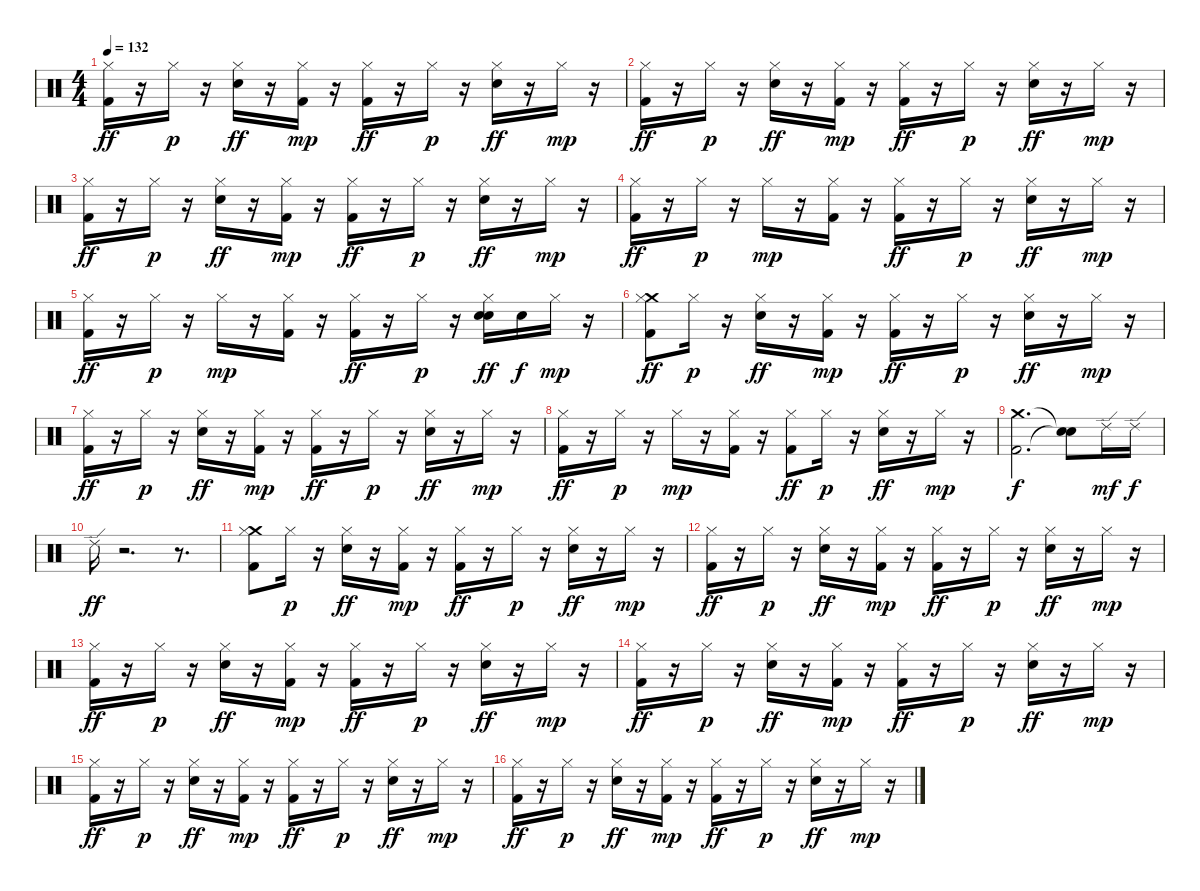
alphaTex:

\track "" {instrument percussion}
\staff {score}
\articulation defaults
\ts (4 4)
\tempo 132
\clef neutral
\ks c
("Hi-Hat (closed)" "Kick (hit) 2").16{dy ff} r.16 "Hi-Hat (closed)".16{dy p} r.16 ("Hi-Hat (closed)" "Snare (hit) 2").16{dy ff} r.16 ("Kick (hit) 2" "Hi-Hat (closed)").16{dy mp} r.16 ("Hi-Hat (closed)" "Kick (hit) 2").16{dy ff} r.16 "Hi-Hat (closed)".16{dy p} r.16 ("Hi-Hat (closed)" "Snare (hit) 2").16{dy ff} r.16 "Hi-Hat (closed)".16{dy mp} r.16 |
("Hi-Hat (closed)" "Kick (hit) 2").16{dy ff} r.16 "Hi-Hat (closed)".16{dy p} r.16 ("Hi-Hat (closed)" "Snare (hit) 2").16{dy ff} r.16 ("Kick (hit) 2" "Hi-Hat (closed)").16{dy mp} r.16 ("Hi-Hat (closed)" "Kick (hit) 2").16{dy ff} r.16 "Hi-Hat (closed)".16{dy p} r.16 ("Hi-Hat (closed)" "Snare (hit) 2").16{dy ff} r.16 "Hi-Hat (closed)".16{dy mp} r.16 |
("Hi-Hat (closed)" "Kick (hit) 2").16{dy ff} r.16 "Hi-Hat (closed)".16{dy p} r.16 ("Hi-Hat (closed)" "Snare (hit) 2").16{dy ff} r.16 ("Kick (hit) 2" "Hi-Hat (closed)").16{dy mp} r.16 ("Hi-Hat (closed)" "Kick (hit) 2").16{dy ff} r.16 "Hi-Hat (closed)".16{dy p} r.16 ("Hi-Hat (closed)" "Snare (hit) 2").16{dy ff} r.16 "Hi-Hat (closed)".16{dy mp} r.16 |
("Hi-Hat (closed)" "Kick (hit) 2").16{dy ff} r.16 "Hi-Hat (closed)".16{dy p} r.16 "Hi-Hat (closed)".16{dy mp} r.16 ("Kick (hit) 2" "Hi-Hat (closed)").16 r.16 ("Hi-Hat (closed)" "Kick (hit) 2").16{dy ff} r.16 "Hi-Hat (closed)".16{dy p} r.16 ("Hi-Hat (closed)" "Snare (hit) 2").16{dy ff} r.16 "Hi-Hat (closed)".16{dy mp} r.16 |
("Hi-Hat (closed)" "Kick (hit) 2").16{dy ff} r.16 "Hi-Hat (closed)".16{dy p} r.16 "Hi-Hat (closed)".16{dy mp} r.16 ("Kick (hit) 2" "Hi-Hat (closed)").16 r.16 ("Hi-Hat (closed)" "Kick (hit) 2").16{dy ff} r.16 "Hi-Hat (closed)".16{dy p} r.16 ("Snare (hit) 2" "Hi-Hat (closed)" "Snare (hit) 2").16{dy ff} "Snare (hit) 2".16{dy f} "Hi-Hat (closed)".16{dy mp} r.16 |
("Crash medium (hit)" "Hi-Hat (closed)" "Kick (hit) 2").8{dy ff} "Hi-Hat (closed)".16{dy p} r.16 ("Hi-Hat (closed)" "Snare (hit) 2").16{dy ff} r.16 ("Kick (hit) 2" "Hi-Hat (closed)").16{dy mp} r.16 ("Hi-Hat (closed)" "Kick (hit) 2").16{dy ff} r.16 "Hi-Hat (closed)".16{dy p} r.16 ("Hi-Hat (closed)" "Snare (hit) 2").16{dy ff} r.16 "Hi-Hat (closed)".16{dy mp} r.16 |
("Hi-Hat (closed)" "Kick (hit) 2").16{dy ff} r.16 "Hi-Hat (closed)".16{dy p} r.16 ("Hi-Hat (closed)" "Snare (hit) 2").16{dy ff} r.16 ("Kick (hit) 2" "Hi-Hat (closed)").16{dy mp} r.16 ("Hi-Hat (closed)" "Kick (hit) 2").16{dy ff} r.16 "Hi-Hat (closed)".16{dy p} r.16 ("Hi-Hat (closed)" "Snare (hit) 2").16{dy ff} r.16 "Hi-Hat (closed)".16{dy mp} r.16 |
("Hi-Hat (closed)" "Kick (hit) 2").16{dy ff} r.16 "Hi-Hat (closed)".16{dy p} r.16 "Hi-Hat (closed)".16{dy mp} r.16 ("Kick (hit) 2" "Hi-Hat (closed)").16 r.16 ("Hi-Hat (closed)" "Kick (hit) 2").8{dy ff} "Hi-Hat (closed)".16{dy p} r.16 ("Hi-Hat (closed)" "Snare (hit) 2").16{dy ff} r.16 "Hi-Hat (closed)".16{dy mp} r.16 |
("Kick (hit) 2" "Crash medium (hit)").2{d dy f} ("Snare (hit)"{t} "Snare (hit)"{t}).8 "Ride (edge) 2".16{dy mf} "Ride (edge) 2".16{dy f} |
"Ride (edge) 2".16{dy ff} r.2{d} r.8{d} |
("Crash medium (hit)" "Hi-Hat (closed)" "Kick (hit) 2").8 "Hi-Hat (closed)".16{dy p} r.16 ("Hi-Hat (closed)" "Snare (hit) 2").16{dy ff} r.16 ("Kick (hit) 2" "Hi-Hat (closed)").16{dy mp} r.16 ("Hi-Hat (closed)" "Kick (hit) 2").16{dy ff} r.16 "Hi-Hat (closed)".16{dy p} r.16 ("Hi-Hat (closed)" "Snare (hit) 2").16{dy ff} r.16 "Hi-Hat (closed)".16{dy mp} r.16 |
("Hi-Hat (closed)" "Kick (hit) 2").16{dy ff} r.16 "Hi-Hat (closed)".16{dy p} r.16 ("Hi-Hat (closed)" "Snare (hit) 2").16{dy ff} r.16 ("Kick (hit) 2" "Hi-Hat (closed)").16{dy mp} r.16 ("Hi-Hat (closed)" "Kick (hit) 2").16{dy ff} r.16 "Hi-Hat (closed)".16{dy p} r.16 ("Hi-Hat (closed)" "Snare (hit) 2").16{dy ff} r.16 "Hi-Hat (closed)".16{dy mp} r.16 |
("Hi-Hat (closed)" "Kick (hit) 2").16{dy ff} r.16 "Hi-Hat (closed)".16{dy p} r.16 ("Hi-Hat (closed)" "Snare (hit) 2").16{dy ff} r.16 ("Kick (hit) 2" "Hi-Hat (closed)").16{dy mp} r.16 ("Hi-Hat (closed)" "Kick (hit) 2").16{dy ff} r.16 "Hi-Hat (closed)".16{dy p} r.16 ("Hi-Hat (closed)" "Snare (hit) 2").16{dy ff} r.16 "Hi-Hat (closed)".16{dy mp} r.16 |
("Hi-Hat (closed)" "Kick (hit) 2").16{dy ff} r.16 "Hi-Hat (closed)".16{dy p} r.16 ("Hi-Hat (closed)" "Snare (hit) 2").16{dy ff} r.16 ("Kick (hit) 2" "Hi-Hat (closed)").16{dy mp} r.16 ("Hi-Hat (closed)" "Kick (hit) 2").16{dy ff} r.16 "Hi-Hat (closed)".16{dy p} r.16 ("Hi-Hat (closed)" "Snare (hit) 2").16{dy ff} r.16 "Hi-Hat (closed)".16{dy mp} r.16 |
("Hi-Hat (closed)" "Kick (hit) 2").16{dy ff} r.16 "Hi-Hat (closed)".16{dy p} r.16 ("Hi-Hat (closed)" "Snare (hit) 2").16{dy ff} r.16 ("Kick (hit) 2" "Hi-Hat (closed)").16{dy mp} r.16 ("Hi-Hat (closed)" "Kick (hit) 2").16{dy ff} r.16 "Hi-Hat (closed)".16{dy p} r.16 ("Hi-Hat (closed)" "Snare (hit) 2").16{dy ff} r.16 "Hi-Hat (closed)".16{dy mp} r.16 |
("Hi-Hat (closed)" "Kick (hit) 2").16{dy ff} r.16 "Hi-Hat (closed)".16{dy p} r.16 ("Hi-Hat (closed)" "Snare (hit) 2").16{dy ff} r.16 ("Kick (hit) 2" "Hi-Hat (closed)").16{dy mp} r.16 ("Hi-Hat (closed)" "Kick (hit) 2").16{dy ff} r.16 "Hi-Hat (closed)".16{dy p} r.16 ("Hi-Hat (closed)" "Snare (hit) 2").16{dy ff} r.16 "Hi-Hat (closed)".16{dy mp} r.16
